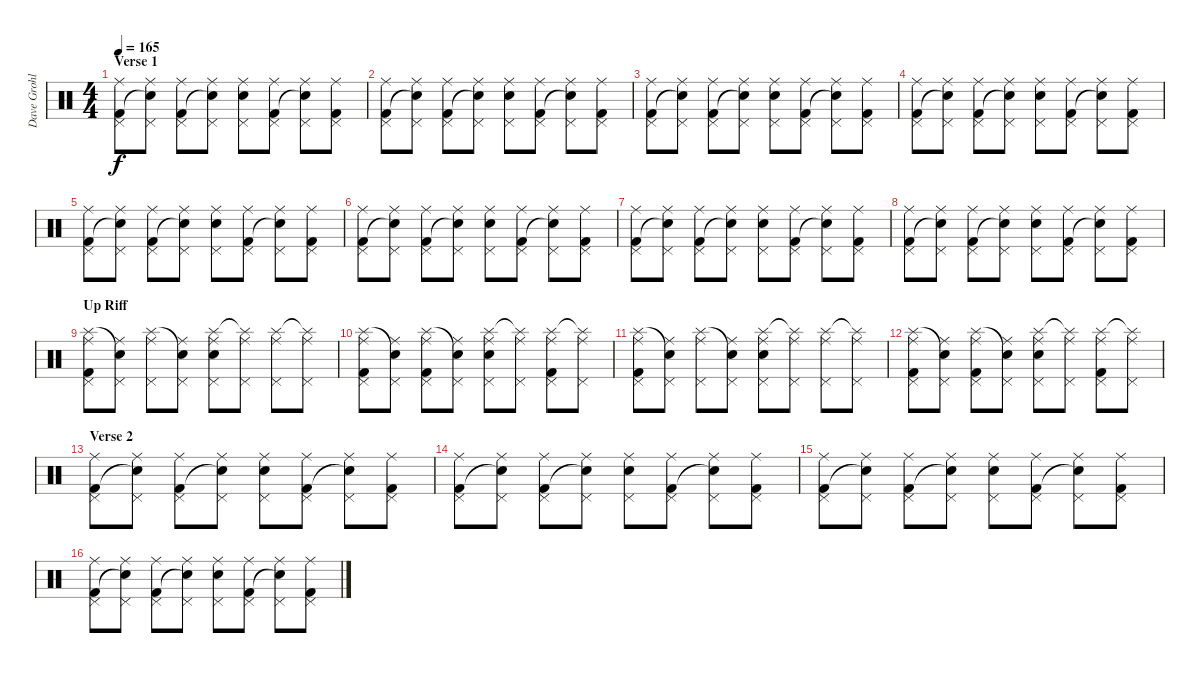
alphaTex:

\track ("Dave Grohl" "Dave Grohl") {instrument percussion}
\staff {score}
\articulation defaults
\ts (4 4)
\section ("" "Verse 1")
\tempo 165
\clef neutral
\ks c
("Ride (middle)" "Pedal Hi-Hat (hit)" "Kick (hit) 2").8{dy f} ("Ride (middle)" "Pedal Hi-Hat (hit)" "Snare (hit)"{t}).8 ("Ride (middle)" "Pedal Hi-Hat (hit)" "Kick (hit) 2").8 ("Ride (middle)" "Pedal Hi-Hat (hit)" "Snare (hit)"{t}).8 ("Ride (middle)" "Pedal Hi-Hat (hit)" "Snare (hit) 2").8 ("Ride (middle)" "Pedal Hi-Hat (hit)" "Kick (hit) 2").8 ("Ride (middle)" "Pedal Hi-Hat (hit)" "Snare (hit)"{t}).8 ("Ride (middle)" "Pedal Hi-Hat (hit)" "Kick (hit) 2").8 |
("Ride (middle)" "Pedal Hi-Hat (hit)" "Kick (hit) 2").8 ("Ride (middle)" "Pedal Hi-Hat (hit)" "Snare (hit)"{t}).8 ("Ride (middle)" "Pedal Hi-Hat (hit)" "Kick (hit) 2").8 ("Ride (middle)" "Pedal Hi-Hat (hit)" "Snare (hit)"{t}).8 ("Ride (middle)" "Pedal Hi-Hat (hit)" "Snare (hit) 2").8 ("Ride (middle)" "Pedal Hi-Hat (hit)" "Kick (hit) 2").8 ("Ride (middle)" "Pedal Hi-Hat (hit)" "Snare (hit)"{t}).8 ("Ride (middle)" "Pedal Hi-Hat (hit)" "Kick (hit) 2").8 |
("Ride (middle)" "Pedal Hi-Hat (hit)" "Kick (hit) 2").8 ("Ride (middle)" "Pedal Hi-Hat (hit)" "Snare (hit)"{t}).8 ("Ride (middle)" "Pedal Hi-Hat (hit)" "Kick (hit) 2").8 ("Ride (middle)" "Pedal Hi-Hat (hit)" "Snare (hit)"{t}).8 ("Ride (middle)" "Pedal Hi-Hat (hit)" "Snare (hit) 2").8 ("Ride (middle)" "Pedal Hi-Hat (hit)" "Kick (hit) 2").8 ("Ride (middle)" "Pedal Hi-Hat (hit)" "Snare (hit)"{t}).8 ("Ride (middle)" "Pedal Hi-Hat (hit)" "Kick (hit) 2").8 |
("Ride (middle)" "Pedal Hi-Hat (hit)" "Kick (hit) 2").8 ("Ride (middle)" "Pedal Hi-Hat (hit)" "Snare (hit)"{t}).8 ("Ride (middle)" "Pedal Hi-Hat (hit)" "Kick (hit) 2").8 ("Ride (middle)" "Pedal Hi-Hat (hit)" "Snare (hit)"{t}).8 ("Ride (middle)" "Pedal Hi-Hat (hit)" "Snare (hit) 2").8 ("Ride (middle)" "Pedal Hi-Hat (hit)" "Kick (hit) 2").8 ("Ride (middle)" "Pedal Hi-Hat (hit)" "Snare (hit)"{t}).8 ("Ride (middle)" "Pedal Hi-Hat (hit)" "Kick (hit) 2").8 |
("Ride (middle)" "Pedal Hi-Hat (hit)" "Kick (hit) 2").8 ("Ride (middle)" "Pedal Hi-Hat (hit)" "Snare (hit)"{t}).8 ("Ride (middle)" "Pedal Hi-Hat (hit)" "Kick (hit) 2").8 ("Ride (middle)" "Pedal Hi-Hat (hit)" "Snare (hit)"{t}).8 ("Ride (middle)" "Pedal Hi-Hat (hit)" "Snare (hit) 2").8 ("Ride (middle)" "Pedal Hi-Hat (hit)" "Kick (hit) 2").8 ("Ride (middle)" "Pedal Hi-Hat (hit)" "Snare (hit)"{t}).8 ("Ride (middle)" "Pedal Hi-Hat (hit)" "Kick (hit) 2").8 |
("Ride (middle)" "Pedal Hi-Hat (hit)" "Kick (hit) 2").8 ("Ride (middle)" "Pedal Hi-Hat (hit)" "Snare (hit)"{t}).8 ("Ride (middle)" "Pedal Hi-Hat (hit)" "Kick (hit) 2").8 ("Ride (middle)" "Pedal Hi-Hat (hit)" "Snare (hit)"{t}).8 ("Ride (middle)" "Pedal Hi-Hat (hit)" "Snare (hit) 2").8 ("Ride (middle)" "Pedal Hi-Hat (hit)" "Kick (hit) 2").8 ("Ride (middle)" "Pedal Hi-Hat (hit)" "Snare (hit)"{t}).8 ("Ride (middle)" "Pedal Hi-Hat (hit)" "Kick (hit) 2").8 |
("Ride (middle)" "Pedal Hi-Hat (hit)" "Kick (hit) 2").8 ("Ride (middle)" "Pedal Hi-Hat (hit)" "Snare (hit)"{t}).8 ("Ride (middle)" "Pedal Hi-Hat (hit)" "Kick (hit) 2").8 ("Ride (middle)" "Pedal Hi-Hat (hit)" "Snare (hit)"{t}).8 ("Ride (middle)" "Pedal Hi-Hat (hit)" "Snare (hit) 2").8 ("Ride (middle)" "Pedal Hi-Hat (hit)" "Kick (hit) 2").8 ("Ride (middle)" "Pedal Hi-Hat (hit)" "Snare (hit)"{t}).8 ("Ride (middle)" "Pedal Hi-Hat (hit)" "Kick (hit) 2").8 |
("Ride (middle)" "Pedal Hi-Hat (hit)" "Kick (hit) 2").8 ("Ride (middle)" "Pedal Hi-Hat (hit)" "Snare (hit)"{t}).8 ("Ride (middle)" "Pedal Hi-Hat (hit)" "Kick (hit) 2").8 ("Ride (middle)" "Pedal Hi-Hat (hit)" "Snare (hit)"{t}).8 ("Ride (middle)" "Pedal Hi-Hat (hit)" "Snare (hit) 2").8 ("Ride (middle)" "Pedal Hi-Hat (hit)" "Kick (hit) 2").8 ("Ride (middle)" "Pedal Hi-Hat (hit)" "Snare (hit)"{t}).8 ("Ride (middle)" "Pedal Hi-Hat (hit)" "Kick (hit) 2").8 |
\section ("" "Up Riff")
("Splash (hit)" "Pedal Hi-Hat (hit)" "Ride (middle)" "Kick (hit) 2").8 ("Snare (hit)"{t} "Pedal Hi-Hat (hit)" "Ride (middle)").8 ("Splash (hit)" "Pedal Hi-Hat (hit)" "Ride (middle)").8 ("Snare (hit)"{t} "Pedal Hi-Hat (hit)" "Ride (middle)").8 ("Splash (hit)" "Pedal Hi-Hat (hit)" "Ride (middle)" "Snare (hit) 2").8 ("Splash (hit)"{t} "Pedal Hi-Hat (hit)" "Ride (middle)").8 ("Splash (hit)" "Pedal Hi-Hat (hit)" "Ride (middle)").8 ("Splash (hit)"{t} "Pedal Hi-Hat (hit)" "Ride (middle)").8 |
("Splash (hit)" "Pedal Hi-Hat (hit)" "Ride (middle)" "Kick (hit) 2").8 ("Snare (hit)"{t} "Pedal Hi-Hat (hit)" "Ride (middle)").8 ("Splash (hit)" "Pedal Hi-Hat (hit)" "Ride (middle)" "Kick (hit) 2").8 ("Snare (hit)"{t} "Pedal Hi-Hat (hit)" "Ride (middle)").8 ("Splash (hit)" "Pedal Hi-Hat (hit)" "Ride (middle)" "Snare (hit) 2").8 ("Splash (hit)"{t} "Pedal Hi-Hat (hit)" "Ride (middle)").8 ("Splash (hit)" "Pedal Hi-Hat (hit)" "Ride (middle)" "Kick (hit) 2").8 ("Splash (hit)"{t} "Pedal Hi-Hat (hit)" "Ride (middle)").8 |
("Splash (hit)" "Pedal Hi-Hat (hit)" "Ride (middle)" "Kick (hit) 2").8 ("Snare (hit)"{t} "Pedal Hi-Hat (hit)" "Ride (middle)").8 ("Splash (hit)" "Pedal Hi-Hat (hit)" "Ride (middle)").8 ("Snare (hit)"{t} "Pedal Hi-Hat (hit)" "Ride (middle)").8 ("Splash (hit)" "Pedal Hi-Hat (hit)" "Ride (middle)" "Snare (hit) 2").8 ("Splash (hit)"{t} "Pedal Hi-Hat (hit)" "Ride (middle)").8 ("Splash (hit)" "Pedal Hi-Hat (hit)" "Ride (middle)").8 ("Splash (hit)"{t} "Pedal Hi-Hat (hit)" "Ride (middle)").8 |
("Splash (hit)" "Pedal Hi-Hat (hit)" "Ride (middle)" "Kick (hit) 2").8 ("Snare (hit)"{t} "Pedal Hi-Hat (hit)" "Ride (middle)").8 ("Splash (hit)" "Pedal Hi-Hat (hit)" "Ride (middle)" "Kick (hit) 2").8 ("Snare (hit)"{t} "Pedal Hi-Hat (hit)" "Ride (middle)").8 ("Splash (hit)" "Pedal Hi-Hat (hit)" "Ride (middle)" "Snare (hit) 2").8 ("Splash (hit)"{t} "Pedal Hi-Hat (hit)" "Ride (middle)").8 ("Splash (hit)" "Pedal Hi-Hat (hit)" "Ride (middle)" "Kick (hit) 2").8 ("Splash (hit)"{t} "Pedal Hi-Hat (hit)" "Ride (middle)").8 |
\section ("" "Verse 2")
("Ride (middle)" "Pedal Hi-Hat (hit)" "Kick (hit) 2").8 ("Ride (middle)" "Pedal Hi-Hat (hit)" "Snare (hit)"{t}).8 ("Ride (middle)" "Pedal Hi-Hat (hit)" "Kick (hit) 2").8 ("Ride (middle)" "Pedal Hi-Hat (hit)" "Snare (hit)"{t}).8 ("Ride (middle)" "Pedal Hi-Hat (hit)" "Snare (hit) 2").8 ("Ride (middle)" "Pedal Hi-Hat (hit)" "Kick (hit) 2").8 ("Ride (middle)" "Pedal Hi-Hat (hit)" "Snare (hit)"{t}).8 ("Ride (middle)" "Pedal Hi-Hat (hit)" "Kick (hit) 2").8 |
("Ride (middle)" "Pedal Hi-Hat (hit)" "Kick (hit) 2").8 ("Ride (middle)" "Pedal Hi-Hat (hit)" "Snare (hit)"{t}).8 ("Ride (middle)" "Pedal Hi-Hat (hit)" "Kick (hit) 2").8 ("Ride (middle)" "Pedal Hi-Hat (hit)" "Snare (hit)"{t}).8 ("Ride (middle)" "Pedal Hi-Hat (hit)" "Snare (hit) 2").8 ("Ride (middle)" "Pedal Hi-Hat (hit)" "Kick (hit) 2").8 ("Ride (middle)" "Pedal Hi-Hat (hit)" "Snare (hit)"{t}).8 ("Ride (middle)" "Pedal Hi-Hat (hit)" "Kick (hit) 2").8 |
("Ride (middle)" "Pedal Hi-Hat (hit)" "Kick (hit) 2").8 ("Ride (middle)" "Pedal Hi-Hat (hit)" "Snare (hit)"{t}).8 ("Ride (middle)" "Pedal Hi-Hat (hit)" "Kick (hit) 2").8 ("Ride (middle)" "Pedal Hi-Hat (hit)" "Snare (hit)"{t}).8 ("Ride (middle)" "Pedal Hi-Hat (hit)" "Snare (hit) 2").8 ("Ride (middle)" "Pedal Hi-Hat (hit)" "Kick (hit) 2").8 ("Ride (middle)" "Pedal Hi-Hat (hit)" "Snare (hit)"{t}).8 ("Ride (middle)" "Pedal Hi-Hat (hit)" "Kick (hit) 2").8 |
("Ride (middle)" "Pedal Hi-Hat (hit)" "Kick (hit) 2").8 ("Ride (middle)" "Pedal Hi-Hat (hit)" "Snare (hit)"{t}).8 ("Ride (middle)" "Pedal Hi-Hat (hit)" "Kick (hit) 2").8 ("Ride (middle)" "Pedal Hi-Hat (hit)" "Snare (hit)"{t}).8 ("Ride (middle)" "Pedal Hi-Hat (hit)" "Snare (hit) 2").8 ("Ride (middle)" "Pedal Hi-Hat (hit)" "Kick (hit) 2").8 ("Ride (middle)" "Pedal Hi-Hat (hit)" "Snare (hit)"{t}).8 ("Ride (middle)" "Pedal Hi-Hat (hit)" "Kick (hit) 2").8
